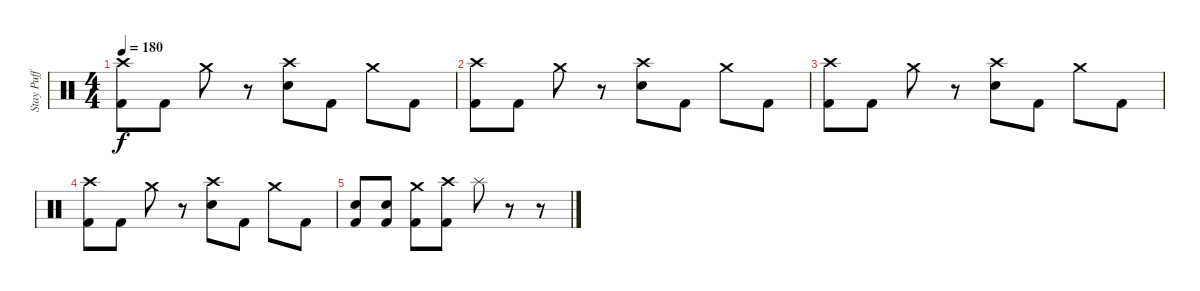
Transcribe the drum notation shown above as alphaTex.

\track ("Stay Puff" "Stay Puff") {instrument percussion}
\staff {score}
\articulation defaults
\ts (4 4)
\tempo 180
\clef neutral
\ks c
("Crash high (hit)" "Kick (hit) 2").8{dy f} "Kick (hit) 2".8 "Crash medium (hit)".8 r.8 ("Crash high (hit)" "Snare (hit) 2").8 "Kick (hit) 2".8 "Crash medium (hit)".8 "Kick (hit) 2".8 |
("Crash high (hit)" "Kick (hit) 2").8 "Kick (hit) 2".8 "Crash medium (hit)".8 r.8 ("Crash high (hit)" "Snare (hit) 2").8 "Kick (hit) 2".8 "Crash medium (hit)".8 "Kick (hit) 2".8 |
("Crash high (hit)" "Kick (hit) 2").8 "Kick (hit) 2".8 "Crash medium (hit)".8 r.8 ("Crash high (hit)" "Snare (hit) 2").8 "Kick (hit) 2".8 "Crash medium (hit)".8 "Kick (hit) 2".8 |
("Crash high (hit)" "Kick (hit) 2").8 "Kick (hit) 2".8 "Crash medium (hit)".8 r.8 ("Crash high (hit)" "Snare (hit) 2").8 "Kick (hit) 2".8 "Crash medium (hit)".8 "Kick (hit) 2".8 |
("Electric Snare (hit)" "Kick (hit) 2").8 ("Electric Snare (hit)" "Kick (hit) 2").8 ("Crash medium (hit)" "Kick (hit) 2").8 ("Crash high (hit)" "Kick (hit) 2").8 "Splash (hit)".8 r.8 r.8
